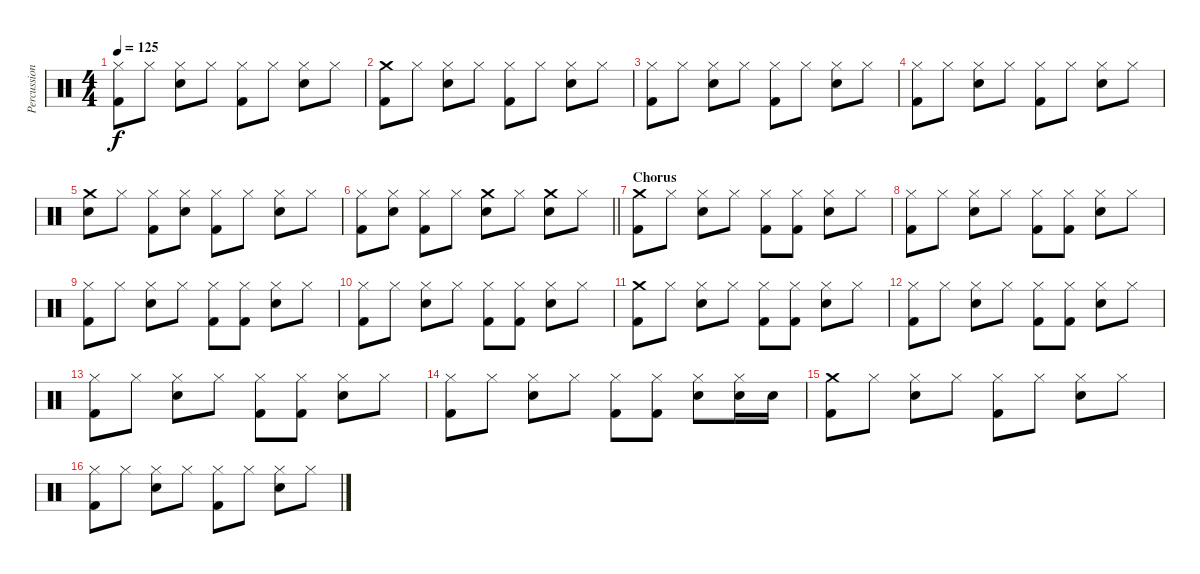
\track ("Percussion" "Percussion") {instrument percussion}
\staff {score}
\articulation defaults
\ts (4 4)
\tempo 125
\clef neutral
\ks c
("Hi-Hat (closed)" "Kick (hit) 2").8{dy f} "Hi-Hat (closed)".8 ("Hi-Hat (closed)" "Snare (hit) 2").8 "Hi-Hat (closed)".8 ("Hi-Hat (closed)" "Kick (hit) 2").8 "Hi-Hat (closed)".8 ("Hi-Hat (closed)" "Snare (hit) 2").8 "Hi-Hat (closed)".8 |
("Crash medium (hit)" "Kick (hit) 2").8 "Hi-Hat (closed)".8 ("Hi-Hat (closed)" "Snare (hit) 2").8 "Hi-Hat (closed)".8 ("Hi-Hat (closed)" "Kick (hit) 2").8 "Hi-Hat (closed)".8 ("Hi-Hat (closed)" "Snare (hit) 2").8 "Hi-Hat (closed)".8 |
("Hi-Hat (closed)" "Kick (hit) 2").8 "Hi-Hat (closed)".8 ("Hi-Hat (closed)" "Snare (hit) 2").8 "Hi-Hat (closed)".8 ("Hi-Hat (closed)" "Kick (hit) 2").8 "Hi-Hat (closed)".8 ("Hi-Hat (closed)" "Snare (hit) 2").8 "Hi-Hat (closed)".8 |
("Hi-Hat (closed)" "Kick (hit) 2").8 "Hi-Hat (closed)".8 ("Hi-Hat (closed)" "Snare (hit) 2").8 "Hi-Hat (closed)".8 ("Hi-Hat (closed)" "Kick (hit) 2").8 "Hi-Hat (closed)".8 ("Hi-Hat (closed)" "Snare (hit) 2").8 "Hi-Hat (closed)".8 |
("Crash medium (hit)" "Snare (hit) 2").8 "Hi-Hat (closed)".8 ("Hi-Hat (closed)" "Kick (hit) 2").8 ("Hi-Hat (closed)" "Snare (hit) 2").8 ("Hi-Hat (closed)" "Kick (hit) 2").8 "Hi-Hat (closed)".8 ("Hi-Hat (closed)" "Snare (hit) 2").8 "Hi-Hat (closed)".8 |
\barLineRight lightlight
("Hi-Hat (closed)" "Kick (hit) 2").8 ("Hi-Hat (closed)" "Snare (hit) 2").8 ("Hi-Hat (closed)" "Kick (hit) 2").8 "Hi-Hat (closed)".8 ("Crash medium (hit)" "Snare (hit) 2").8 "Hi-Hat (closed)".8 ("Crash medium (hit)" "Snare (hit) 2").8 "Hi-Hat (closed)".8 |
\section ("" "Chorus")
("Crash medium (hit)" "Kick (hit) 2").8 "Hi-Hat (closed)".8 ("Hi-Hat (closed)" "Snare (hit) 2").8 "Hi-Hat (closed)".8 ("Hi-Hat (closed)" "Kick (hit) 2").8 ("Hi-Hat (closed)" "Kick (hit) 2").8 ("Hi-Hat (closed)" "Snare (hit) 2").8 "Hi-Hat (closed)".8 |
("Hi-Hat (closed)" "Kick (hit) 2").8 "Hi-Hat (closed)".8 ("Hi-Hat (closed)" "Snare (hit) 2").8 "Hi-Hat (closed)".8 ("Hi-Hat (closed)" "Kick (hit) 2").8 ("Hi-Hat (closed)" "Kick (hit) 2").8 ("Hi-Hat (closed)" "Snare (hit) 2").8 "Hi-Hat (closed)".8 |
("Hi-Hat (closed)" "Kick (hit) 2").8 "Hi-Hat (closed)".8 ("Hi-Hat (closed)" "Snare (hit) 2").8 "Hi-Hat (closed)".8 ("Hi-Hat (closed)" "Kick (hit) 2").8 ("Hi-Hat (closed)" "Kick (hit) 2").8 ("Hi-Hat (closed)" "Snare (hit) 2").8 "Hi-Hat (closed)".8 |
("Hi-Hat (closed)" "Kick (hit) 2").8 "Hi-Hat (closed)".8 ("Hi-Hat (closed)" "Snare (hit) 2").8 "Hi-Hat (closed)".8 ("Hi-Hat (closed)" "Kick (hit) 2").8 ("Hi-Hat (closed)" "Kick (hit) 2").8 ("Hi-Hat (closed)" "Snare (hit) 2").8 "Hi-Hat (closed)".8 |
("Crash medium (hit)" "Kick (hit) 2").8 "Hi-Hat (closed)".8 ("Hi-Hat (closed)" "Snare (hit) 2").8 "Hi-Hat (closed)".8 ("Hi-Hat (closed)" "Kick (hit) 2").8 ("Hi-Hat (closed)" "Kick (hit) 2").8 ("Hi-Hat (closed)" "Snare (hit) 2").8 "Hi-Hat (closed)".8 |
("Hi-Hat (closed)" "Kick (hit) 2").8 "Hi-Hat (closed)".8 ("Hi-Hat (closed)" "Snare (hit) 2").8 "Hi-Hat (closed)".8 ("Hi-Hat (closed)" "Kick (hit) 2").8 ("Hi-Hat (closed)" "Kick (hit) 2").8 ("Hi-Hat (closed)" "Snare (hit) 2").8 "Hi-Hat (closed)".8 |
("Hi-Hat (closed)" "Kick (hit) 2").8 "Hi-Hat (closed)".8 ("Hi-Hat (closed)" "Snare (hit) 2").8 "Hi-Hat (closed)".8 ("Hi-Hat (closed)" "Kick (hit) 2").8 ("Hi-Hat (closed)" "Kick (hit) 2").8 ("Hi-Hat (closed)" "Snare (hit) 2").8 "Hi-Hat (closed)".8 |
("Hi-Hat (closed)" "Kick (hit) 2").8 "Hi-Hat (closed)".8 ("Hi-Hat (closed)" "Snare (hit) 2").8 "Hi-Hat (closed)".8 ("Hi-Hat (closed)" "Kick (hit) 2").8 ("Hi-Hat (closed)" "Kick (hit) 2").8 ("Hi-Hat (closed)" "Snare (hit) 2").8 ("Hi-Hat (closed)" "Snare (hit) 2").16 "Snare (hit) 2".16 |
("Crash medium (hit)" "Kick (hit) 2").8 "Hi-Hat (closed)".8 ("Hi-Hat (closed)" "Snare (hit) 2").8 "Hi-Hat (closed)".8 ("Hi-Hat (closed)" "Kick (hit) 2").8 "Hi-Hat (closed)".8 ("Hi-Hat (closed)" "Snare (hit) 2").8 "Hi-Hat (closed)".8 |
("Hi-Hat (closed)" "Kick (hit) 2").8 "Hi-Hat (closed)".8 ("Hi-Hat (closed)" "Snare (hit) 2").8 "Hi-Hat (closed)".8 ("Hi-Hat (closed)" "Kick (hit) 2").8 "Hi-Hat (closed)".8 ("Hi-Hat (closed)" "Snare (hit) 2").8 "Hi-Hat (closed)".8
